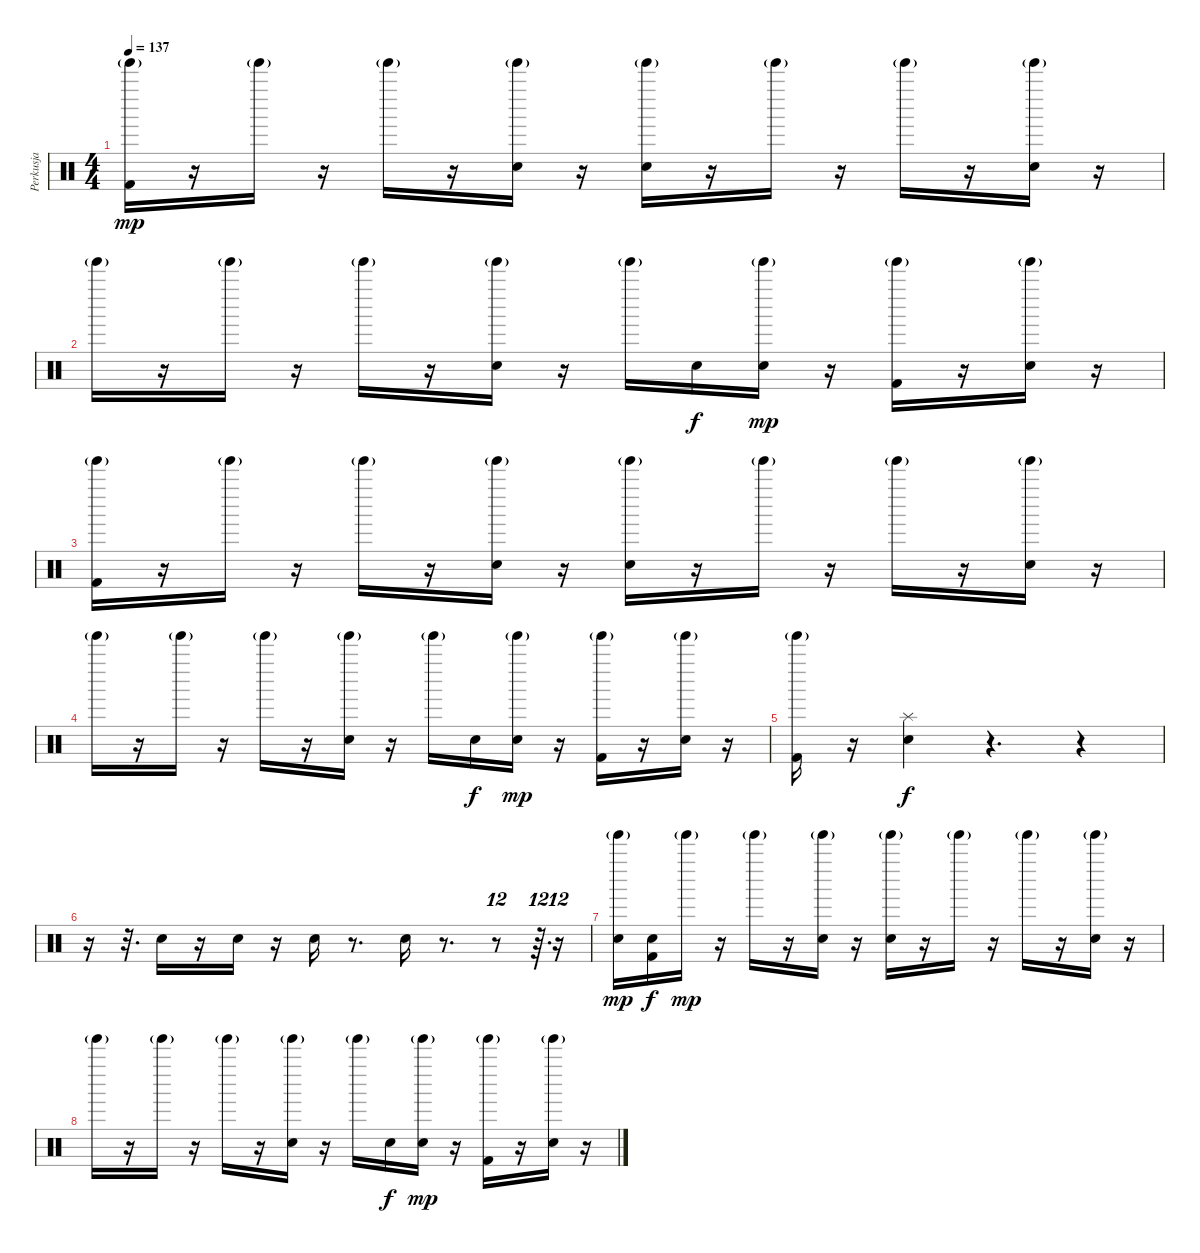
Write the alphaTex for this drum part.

\track ("Perkusja" "Perkusja") {instrument percussion}
\staff {score}
\articulation defaults
\ts (4 4)
\tempo 137
\clef neutral
\ks c
("Kick (hit) 2" "Tinkle Bell (hit)"{g}).16{dy mp} r.16 "Tinkle Bell (hit)"{g}.16 r.16 "Tinkle Bell (hit)"{g}.16 r.16 ("Electric Snare (hit)" "Tinkle Bell (hit)"{g}).16 r.16 ("Electric Snare (hit)" "Tinkle Bell (hit)"{g}).16 r.16 "Tinkle Bell (hit)"{g}.16 r.16 "Tinkle Bell (hit)"{g}.16 r.16 ("Electric Snare (hit)" "Tinkle Bell (hit)"{g}).16 r.16 |
"Tinkle Bell (hit)"{g}.16 r.16 "Tinkle Bell (hit)"{g}.16 r.16 "Tinkle Bell (hit)"{g}.16 r.16 ("Electric Snare (hit)" "Tinkle Bell (hit)"{g}).16 r.16 "Tinkle Bell (hit)"{g}.16 "Electric Snare (hit)".16{dy f} ("Electric Snare (hit)" "Tinkle Bell (hit)"{g}).16{dy mp} r.16 ("Kick (hit) 2" "Tinkle Bell (hit)"{g}).16 r.16 ("Electric Snare (hit)" "Tinkle Bell (hit)"{g}).16 r.16 |
("Kick (hit) 2" "Tinkle Bell (hit)"{g}).16 r.16 "Tinkle Bell (hit)"{g}.16 r.16 "Tinkle Bell (hit)"{g}.16 r.16 ("Electric Snare (hit)" "Tinkle Bell (hit)"{g}).16 r.16 ("Electric Snare (hit)" "Tinkle Bell (hit)"{g}).16 r.16 "Tinkle Bell (hit)"{g}.16 r.16 "Tinkle Bell (hit)"{g}.16 r.16 ("Electric Snare (hit)" "Tinkle Bell (hit)"{g}).16 r.16 |
"Tinkle Bell (hit)"{g}.16 r.16 "Tinkle Bell (hit)"{g}.16 r.16 "Tinkle Bell (hit)"{g}.16 r.16 ("Electric Snare (hit)" "Tinkle Bell (hit)"{g}).16 r.16 "Tinkle Bell (hit)"{g}.16 "Electric Snare (hit)".16{dy f} ("Electric Snare (hit)" "Tinkle Bell (hit)"{g}).16{dy mp} r.16 ("Kick (hit) 2" "Tinkle Bell (hit)"{g}).16 r.16 ("Electric Snare (hit)" "Tinkle Bell (hit)"{g}).16 r.16 |
("Kick (hit) 2" "Tinkle Bell (hit)"{g}).16 r.16 ("Electric Snare (hit)" "Splash (hit)").4{dy f} r.4{d} r.4 |
r.16 r.32{d} "Electric Snare (hit)".16 r.16 "Electric Snare (hit)".16 r.16 "Electric Snare (hit)".16 r.8{d} "Electric Snare (hit)".16 r.8{d} r.8{tu (12 8)} r.64{d tu (12 8)} r.16{tu (12 8)} |
("Electric Snare (hit)" "Tinkle Bell (hit)"{g}).16{dy mp} ("Electric Snare (hit)" "Kick (hit) 2").16{dy f} "Tinkle Bell (hit)"{g}.16{dy mp} r.16 "Tinkle Bell (hit)"{g}.16 r.16 ("Electric Snare (hit)" "Tinkle Bell (hit)"{g}).16 r.16 ("Electric Snare (hit)" "Tinkle Bell (hit)"{g}).16 r.16 "Tinkle Bell (hit)"{g}.16 r.16 "Tinkle Bell (hit)"{g}.16 r.16 ("Electric Snare (hit)" "Tinkle Bell (hit)"{g}).16 r.16 |
"Tinkle Bell (hit)"{g}.16 r.16 "Tinkle Bell (hit)"{g}.16 r.16 "Tinkle Bell (hit)"{g}.16 r.16 ("Electric Snare (hit)" "Tinkle Bell (hit)"{g}).16 r.16 "Tinkle Bell (hit)"{g}.16 "Electric Snare (hit)".16{dy f} ("Electric Snare (hit)" "Tinkle Bell (hit)"{g}).16{dy mp} r.16 ("Kick (hit) 2" "Tinkle Bell (hit)"{g}).16 r.16 ("Electric Snare (hit)" "Tinkle Bell (hit)"{g}).16 r.16
